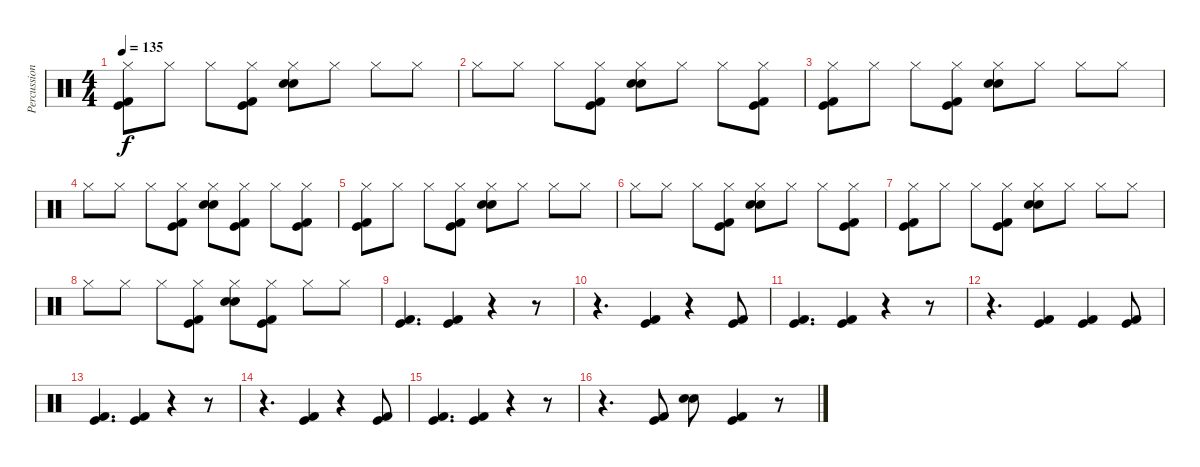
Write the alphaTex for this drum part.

\track ("Percussion" "Percussion") {instrument percussion}
\staff {score}
\articulation defaults
\ts (4 4)
\tempo 135
\clef neutral
\ks c
("Hi-Hat (closed)" "Kick (hit) 2" "Kick (hit)").8{dy f} "Hi-Hat (closed)".8 "Hi-Hat (closed)".8 ("Hi-Hat (closed)" "Kick (hit) 2" "Kick (hit)").8 ("Hi-Hat (closed)" "Hand Clap (hit)" "Electric Snare (hit)").8 "Hi-Hat (closed)".8 "Hi-Hat (closed)".8 "Hi-Hat (closed)".8 |
"Hi-Hat (closed)".8 "Hi-Hat (closed)".8 "Hi-Hat (closed)".8 ("Hi-Hat (closed)" "Kick (hit) 2" "Kick (hit)").8 ("Hi-Hat (closed)" "Hand Clap (hit)" "Electric Snare (hit)").8 "Hi-Hat (closed)".8 "Hi-Hat (closed)".8 ("Hi-Hat (closed)" "Kick (hit) 2" "Kick (hit)").8 |
("Hi-Hat (closed)" "Kick (hit) 2" "Kick (hit)").8 "Hi-Hat (closed)".8 "Hi-Hat (closed)".8 ("Hi-Hat (closed)" "Kick (hit) 2" "Kick (hit)").8 ("Hi-Hat (closed)" "Hand Clap (hit)" "Electric Snare (hit)").8 "Hi-Hat (closed)".8 "Hi-Hat (closed)".8 "Hi-Hat (closed)".8 |
"Hi-Hat (closed)".8 "Hi-Hat (closed)".8 "Hi-Hat (closed)".8 ("Hi-Hat (closed)" "Kick (hit) 2" "Kick (hit)").8 ("Hi-Hat (closed)" "Hand Clap (hit)" "Electric Snare (hit)").8 ("Hi-Hat (closed)" "Kick (hit) 2" "Kick (hit)").8 "Hi-Hat (closed)".8 ("Hi-Hat (closed)" "Kick (hit) 2" "Kick (hit)").8 |
("Hi-Hat (closed)" "Kick (hit) 2" "Kick (hit)").8 "Hi-Hat (closed)".8 "Hi-Hat (closed)".8 ("Hi-Hat (closed)" "Kick (hit) 2" "Kick (hit)").8 ("Hi-Hat (closed)" "Hand Clap (hit)" "Electric Snare (hit)").8 "Hi-Hat (closed)".8 "Hi-Hat (closed)".8 "Hi-Hat (closed)".8 |
"Hi-Hat (closed)".8 "Hi-Hat (closed)".8 "Hi-Hat (closed)".8 ("Hi-Hat (closed)" "Kick (hit) 2" "Kick (hit)").8 ("Hi-Hat (closed)" "Hand Clap (hit)" "Electric Snare (hit)").8 "Hi-Hat (closed)".8 "Hi-Hat (closed)".8 ("Hi-Hat (closed)" "Kick (hit) 2" "Kick (hit)").8 |
("Hi-Hat (closed)" "Kick (hit) 2" "Kick (hit)").8 "Hi-Hat (closed)".8 "Hi-Hat (closed)".8 ("Hi-Hat (closed)" "Kick (hit) 2" "Kick (hit)").8 ("Hi-Hat (closed)" "Hand Clap (hit)" "Electric Snare (hit)").8 "Hi-Hat (closed)".8 "Hi-Hat (closed)".8 "Hi-Hat (closed)".8 |
"Hi-Hat (closed)".8 "Hi-Hat (closed)".8 "Hi-Hat (closed)".8 ("Hi-Hat (closed)" "Kick (hit) 2" "Kick (hit)").8 ("Hi-Hat (closed)" "Hand Clap (hit)" "Electric Snare (hit)").8 ("Hi-Hat (closed)" "Kick (hit) 2" "Kick (hit)").8 "Hi-Hat (closed)".8 "Hi-Hat (closed)".8 |
("Kick (hit) 2" "Kick (hit)").4{d} ("Kick (hit) 2" "Kick (hit)").4 r.4 r.8 |
r.4{d} ("Kick (hit) 2" "Kick (hit)").4 r.4 ("Kick (hit) 2" "Kick (hit)").8 |
("Kick (hit) 2" "Kick (hit)").4{d} ("Kick (hit) 2" "Kick (hit)").4 r.4 r.8 |
r.4{d} ("Kick (hit) 2" "Kick (hit)").4 ("Kick (hit) 2" "Kick (hit)").4 ("Kick (hit) 2" "Kick (hit)").8 |
("Kick (hit) 2" "Kick (hit)").4{d} ("Kick (hit) 2" "Kick (hit)").4 r.4 r.8 |
r.4{d} ("Kick (hit) 2" "Kick (hit)").4 r.4 ("Kick (hit) 2" "Kick (hit)").8 |
("Kick (hit) 2" "Kick (hit)").4{d} ("Kick (hit) 2" "Kick (hit)").4 r.4 r.8 |
r.4{d} ("Kick (hit) 2" "Kick (hit)").8 ("Electric Snare (hit)" "Hand Clap (hit)").8 ("Kick (hit) 2" "Kick (hit)").4 r.8
